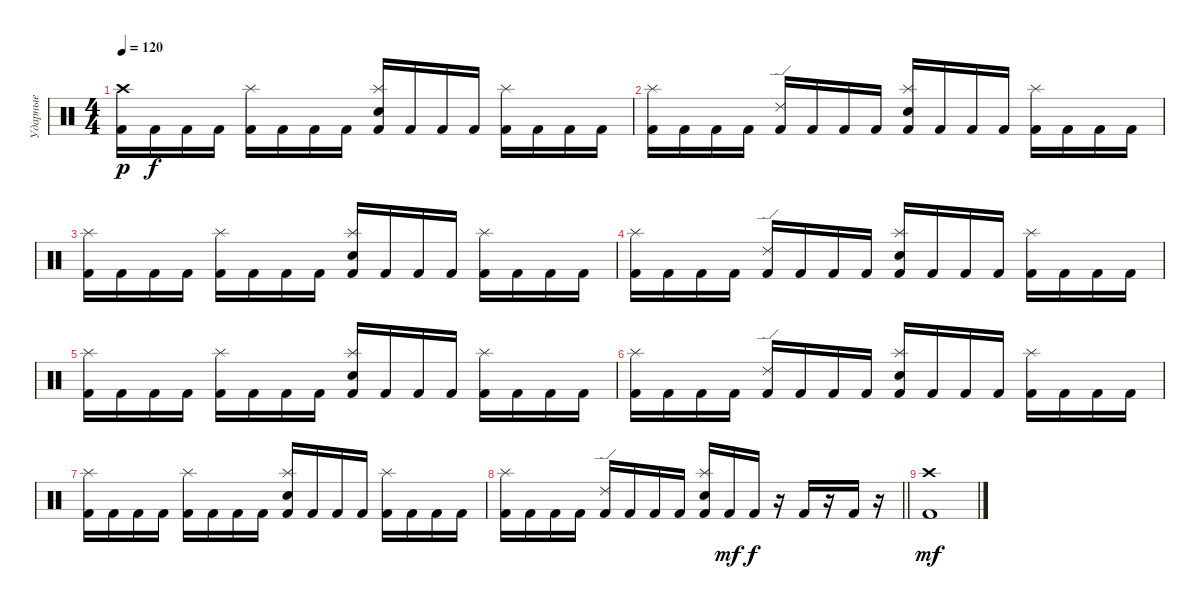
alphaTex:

\track ("Ударные" "Ударные") {instrument percussion}
\staff {score}
\articulation defaults
\ts (4 4)
\tempo 120
\clef neutral
\ks c
("Kick (hit) 2" "Crash high (hit)").16{dy p} "Kick (hit) 2".16{dy f} "Kick (hit) 2".16 "Kick (hit) 2".16 ("Kick (hit) 2" "Splash (hit)").16 "Kick (hit) 2".16 "Kick (hit) 2".16 "Kick (hit) 2".16 ("Kick (hit) 2" "Splash (hit)" "Snare (hit) 2").16 "Kick (hit) 2".16 "Kick (hit) 2".16 "Kick (hit) 2".16 ("Kick (hit) 2" "Splash (hit)").16 "Kick (hit) 2".16 "Kick (hit) 2".16 "Kick (hit) 2".16 |
("Kick (hit) 2" "Splash (hit)").16 "Kick (hit) 2".16 "Kick (hit) 2".16 "Kick (hit) 2".16 ("Kick (hit) 2" "Ride (edge) 2").16 "Kick (hit) 2".16 "Kick (hit) 2".16 "Kick (hit) 2".16 ("Kick (hit) 2" "Splash (hit)" "Snare (hit) 2").16 "Kick (hit) 2".16 "Kick (hit) 2".16 "Kick (hit) 2".16 ("Kick (hit) 2" "Splash (hit)").16 "Kick (hit) 2".16 "Kick (hit) 2".16 "Kick (hit) 2".16 |
("Kick (hit) 2" "Splash (hit)").16 "Kick (hit) 2".16 "Kick (hit) 2".16 "Kick (hit) 2".16 ("Kick (hit) 2" "Splash (hit)").16 "Kick (hit) 2".16 "Kick (hit) 2".16 "Kick (hit) 2".16 ("Kick (hit) 2" "Splash (hit)" "Snare (hit) 2").16 "Kick (hit) 2".16 "Kick (hit) 2".16 "Kick (hit) 2".16 ("Kick (hit) 2" "Splash (hit)").16 "Kick (hit) 2".16 "Kick (hit) 2".16 "Kick (hit) 2".16 |
("Kick (hit) 2" "Splash (hit)").16 "Kick (hit) 2".16 "Kick (hit) 2".16 "Kick (hit) 2".16 ("Kick (hit) 2" "Ride (edge) 2").16 "Kick (hit) 2".16 "Kick (hit) 2".16 "Kick (hit) 2".16 ("Kick (hit) 2" "Splash (hit)" "Snare (hit) 2").16 "Kick (hit) 2".16 "Kick (hit) 2".16 "Kick (hit) 2".16 ("Kick (hit) 2" "Splash (hit)").16 "Kick (hit) 2".16 "Kick (hit) 2".16 "Kick (hit) 2".16 |
("Kick (hit) 2" "Splash (hit)").16 "Kick (hit) 2".16 "Kick (hit) 2".16 "Kick (hit) 2".16 ("Kick (hit) 2" "Splash (hit)").16 "Kick (hit) 2".16 "Kick (hit) 2".16 "Kick (hit) 2".16 ("Kick (hit) 2" "Splash (hit)" "Snare (hit) 2").16 "Kick (hit) 2".16 "Kick (hit) 2".16 "Kick (hit) 2".16 ("Kick (hit) 2" "Splash (hit)").16 "Kick (hit) 2".16 "Kick (hit) 2".16 "Kick (hit) 2".16 |
("Kick (hit) 2" "Splash (hit)").16 "Kick (hit) 2".16 "Kick (hit) 2".16 "Kick (hit) 2".16 ("Kick (hit) 2" "Ride (edge) 2").16 "Kick (hit) 2".16 "Kick (hit) 2".16 "Kick (hit) 2".16 ("Kick (hit) 2" "Splash (hit)" "Snare (hit) 2").16 "Kick (hit) 2".16 "Kick (hit) 2".16 "Kick (hit) 2".16 ("Kick (hit) 2" "Splash (hit)").16 "Kick (hit) 2".16 "Kick (hit) 2".16 "Kick (hit) 2".16 |
("Kick (hit) 2" "Splash (hit)").16 "Kick (hit) 2".16 "Kick (hit) 2".16 "Kick (hit) 2".16 ("Kick (hit) 2" "Splash (hit)").16 "Kick (hit) 2".16 "Kick (hit) 2".16 "Kick (hit) 2".16 ("Kick (hit) 2" "Splash (hit)" "Snare (hit) 2").16 "Kick (hit) 2".16 "Kick (hit) 2".16 "Kick (hit) 2".16 ("Kick (hit) 2" "Splash (hit)").16 "Kick (hit) 2".16 "Kick (hit) 2".16 "Kick (hit) 2".16 |
\barLineRight lightlight
("Kick (hit) 2" "Splash (hit)").16 "Kick (hit) 2".16 "Kick (hit) 2".16 "Kick (hit) 2".16 ("Kick (hit) 2" "Ride (edge) 2").16 "Kick (hit) 2".16 "Kick (hit) 2".16 "Kick (hit) 2".16 ("Kick (hit) 2" "Splash (hit)" "Snare (hit) 2").16 "Kick (hit) 2".16{dy mf} "Kick (hit) 2".16{dy f} r.16 "Kick (hit) 2".16 r.16 "Kick (hit) 2".16 r.16 |
("Kick (hit) 2" "Crash high (hit)").1{dy mf}
